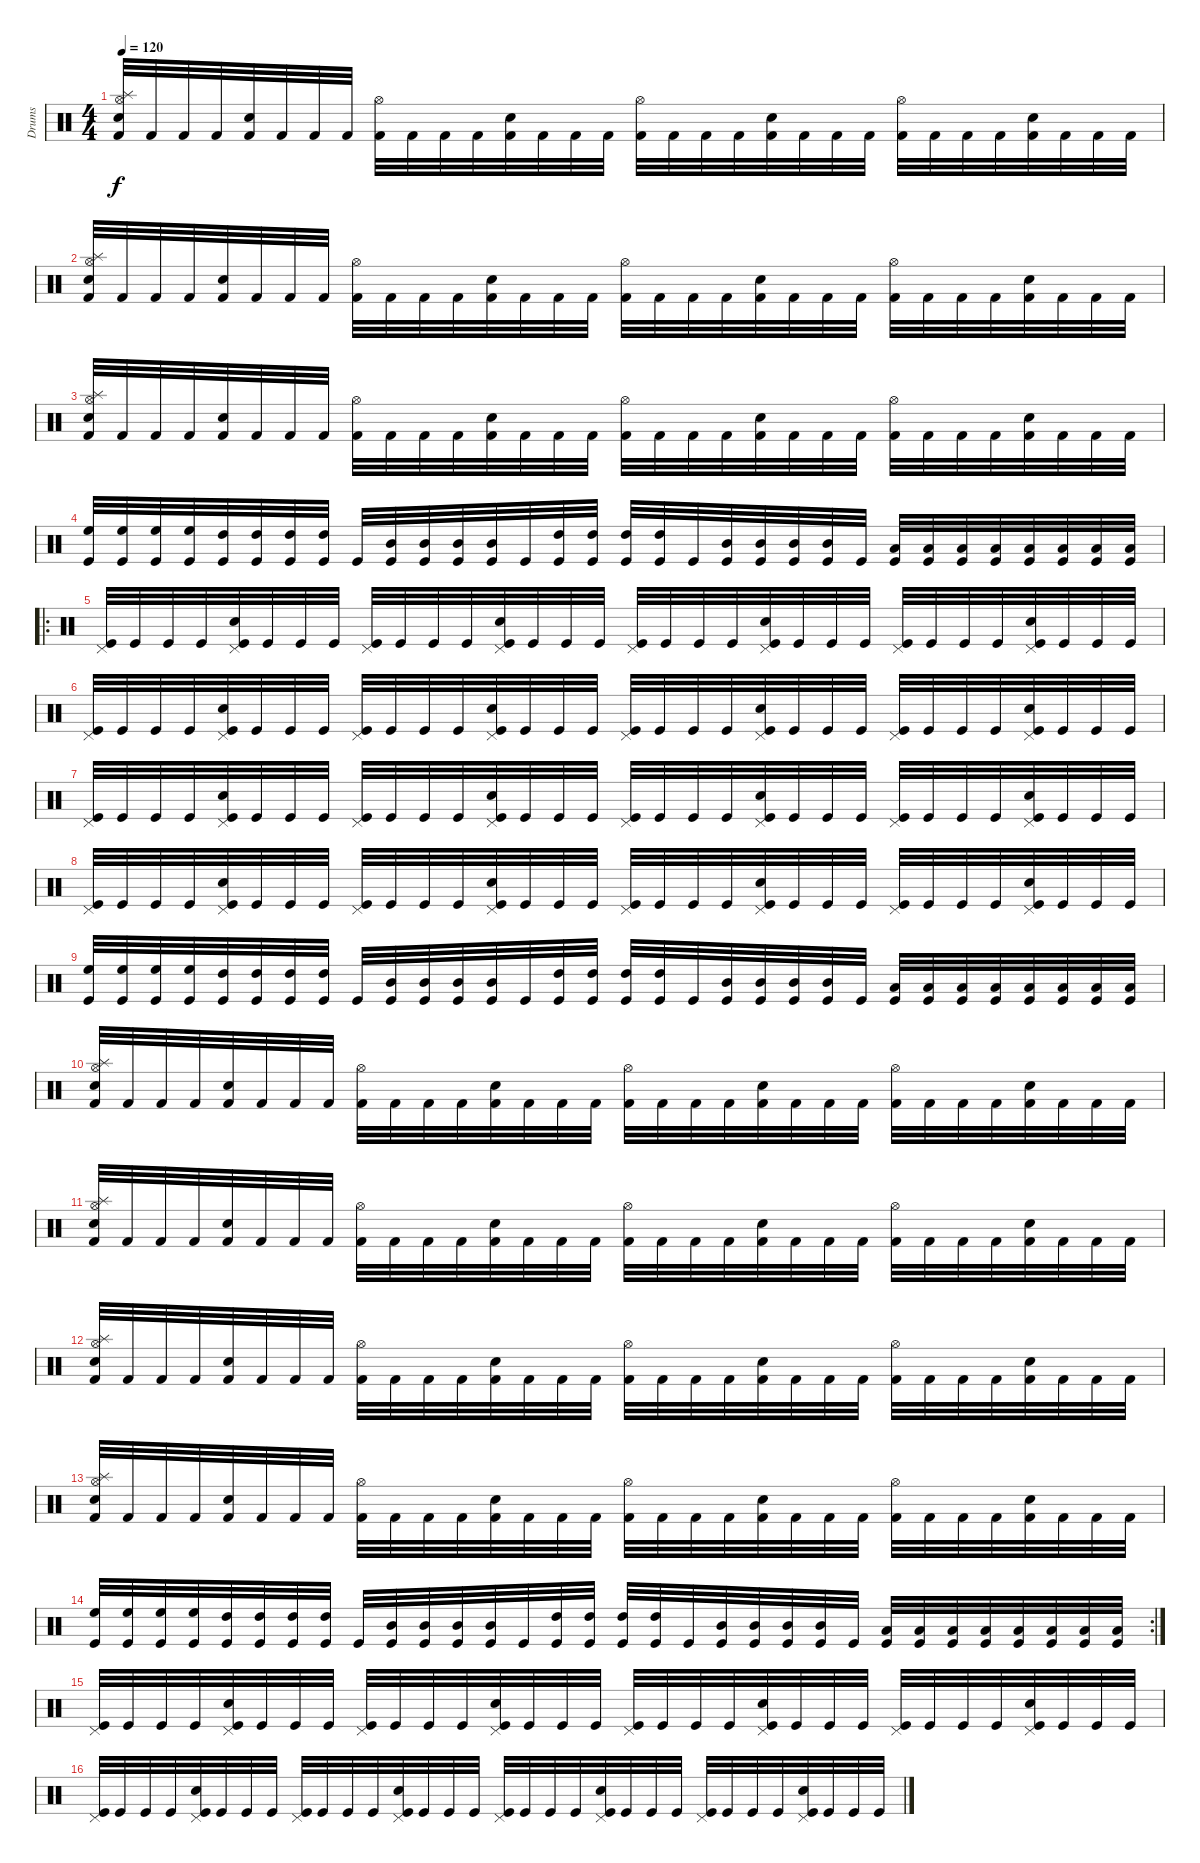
\track ("Drums" "Drums") {instrument percussion}
\staff {score}
\articulation defaults
\ts (4 4)
\tempo 120
\clef neutral
\ks c
("Snare (hit) 2" "Splash (hit)" "Hi-Hat (open)" "Kick (hit) 2").32{dy f} "Kick (hit) 2".32 "Kick (hit) 2".32 "Kick (hit) 2".32 ("Snare (hit) 2" "Kick (hit) 2").32 "Kick (hit) 2".32 "Kick (hit) 2".32 "Kick (hit) 2".32 ("Hi-Hat (open)" "Kick (hit) 2").32 "Kick (hit) 2".32 "Kick (hit) 2".32 "Kick (hit) 2".32 ("Snare (hit) 2" "Kick (hit) 2").32 "Kick (hit) 2".32 "Kick (hit) 2".32 "Kick (hit) 2".32 ("Hi-Hat (open)" "Kick (hit) 2").32 "Kick (hit) 2".32 "Kick (hit) 2".32 "Kick (hit) 2".32 ("Snare (hit) 2" "Kick (hit) 2").32 "Kick (hit) 2".32 "Kick (hit) 2".32 "Kick (hit) 2".32 ("Hi-Hat (open)" "Kick (hit) 2").32 "Kick (hit) 2".32 "Kick (hit) 2".32 "Kick (hit) 2".32 ("Snare (hit) 2" "Kick (hit) 2").32 "Kick (hit) 2".32 "Kick (hit) 2".32 "Kick (hit) 2".32 |
("Snare (hit) 2" "Splash (hit)" "Hi-Hat (open)" "Kick (hit) 2").32 "Kick (hit) 2".32 "Kick (hit) 2".32 "Kick (hit) 2".32 ("Snare (hit) 2" "Kick (hit) 2").32 "Kick (hit) 2".32 "Kick (hit) 2".32 "Kick (hit) 2".32 ("Hi-Hat (open)" "Kick (hit) 2").32 "Kick (hit) 2".32 "Kick (hit) 2".32 "Kick (hit) 2".32 ("Snare (hit) 2" "Kick (hit) 2").32 "Kick (hit) 2".32 "Kick (hit) 2".32 "Kick (hit) 2".32 ("Hi-Hat (open)" "Kick (hit) 2").32 "Kick (hit) 2".32 "Kick (hit) 2".32 "Kick (hit) 2".32 ("Snare (hit) 2" "Kick (hit) 2").32 "Kick (hit) 2".32 "Kick (hit) 2".32 "Kick (hit) 2".32 ("Hi-Hat (open)" "Kick (hit) 2").32 "Kick (hit) 2".32 "Kick (hit) 2".32 "Kick (hit) 2".32 ("Snare (hit) 2" "Kick (hit) 2").32 "Kick (hit) 2".32 "Kick (hit) 2".32 "Kick (hit) 2".32 |
("Snare (hit) 2" "Splash (hit)" "Hi-Hat (open)" "Kick (hit) 2").32 "Kick (hit) 2".32 "Kick (hit) 2".32 "Kick (hit) 2".32 ("Snare (hit) 2" "Kick (hit) 2").32 "Kick (hit) 2".32 "Kick (hit) 2".32 "Kick (hit) 2".32 ("Hi-Hat (open)" "Kick (hit) 2").32 "Kick (hit) 2".32 "Kick (hit) 2".32 "Kick (hit) 2".32 ("Snare (hit) 2" "Kick (hit) 2").32 "Kick (hit) 2".32 "Kick (hit) 2".32 "Kick (hit) 2".32 ("Hi-Hat (open)" "Kick (hit) 2").32 "Kick (hit) 2".32 "Kick (hit) 2".32 "Kick (hit) 2".32 ("Snare (hit) 2" "Kick (hit) 2").32 "Kick (hit) 2".32 "Kick (hit) 2".32 "Kick (hit) 2".32 ("Hi-Hat (open)" "Kick (hit) 2").32 "Kick (hit) 2".32 "Kick (hit) 2".32 "Kick (hit) 2".32 ("Snare (hit) 2" "Kick (hit) 2").32 "Kick (hit) 2".32 "Kick (hit) 2".32 "Kick (hit) 2".32 |
("Kick (hit)" "High Floor Tom (hit)").32 ("Kick (hit)" "High Floor Tom (hit)").32 ("Kick (hit)" "High Floor Tom (hit)").32 ("Kick (hit)" "High Floor Tom (hit)").32 ("Kick (hit)" "High Tom (hit)").32 ("Kick (hit)" "High Tom (hit)").32 ("Kick (hit)" "High Tom (hit)").32 ("Kick (hit)" "High Tom (hit)").32 "Kick (hit)".32 ("Kick (hit)" "Mid Tom (hit)").32 ("Kick (hit)" "Mid Tom (hit)").32 ("Kick (hit)" "Mid Tom (hit)").32 ("Kick (hit)" "Mid Tom (hit)").32 "Kick (hit)".32 ("Kick (hit)" "High Tom (hit)").32 ("Kick (hit)" "High Tom (hit)").32 ("Kick (hit)" "High Tom (hit)").32 ("Kick (hit)" "High Tom (hit)").32 "Kick (hit)".32 ("Kick (hit)" "Mid Tom (hit)").32 ("Kick (hit)" "Mid Tom (hit)").32 ("Kick (hit)" "Mid Tom (hit)").32 ("Kick (hit)" "Mid Tom (hit)").32 "Kick (hit)".32 ("Kick (hit)" "Low Tom (hit)").32 ("Kick (hit)" "Low Tom (hit)").32 ("Kick (hit)" "Low Tom (hit)").32 ("Kick (hit)" "Low Tom (hit)").32 ("Kick (hit)" "Low Tom (hit)").32 ("Kick (hit)" "Low Tom (hit)").32 ("Kick (hit)" "Low Tom (hit)").32 ("Kick (hit)" "Low Tom (hit)").32 |
\ro
("Kick (hit)" "Pedal Hi-Hat (hit)").32 "Kick (hit)".32 "Kick (hit)".32 "Kick (hit)".32 ("Kick (hit)" "Snare (hit) 2" "Pedal Hi-Hat (hit)").32 "Kick (hit)".32 "Kick (hit)".32 "Kick (hit)".32 ("Kick (hit)" "Pedal Hi-Hat (hit)").32 "Kick (hit)".32 "Kick (hit)".32 "Kick (hit)".32 ("Kick (hit)" "Snare (hit) 2" "Pedal Hi-Hat (hit)").32 "Kick (hit)".32 "Kick (hit)".32 "Kick (hit)".32 ("Kick (hit)" "Pedal Hi-Hat (hit)").32 "Kick (hit)".32 "Kick (hit)".32 "Kick (hit)".32 ("Kick (hit)" "Snare (hit) 2" "Pedal Hi-Hat (hit)").32 "Kick (hit)".32 "Kick (hit)".32 "Kick (hit)".32 ("Kick (hit)" "Pedal Hi-Hat (hit)").32 "Kick (hit)".32 "Kick (hit)".32 "Kick (hit)".32 ("Kick (hit)" "Snare (hit) 2" "Pedal Hi-Hat (hit)").32 "Kick (hit)".32 "Kick (hit)".32 "Kick (hit)".32 |
("Kick (hit)" "Pedal Hi-Hat (hit)").32 "Kick (hit)".32 "Kick (hit)".32 "Kick (hit)".32 ("Kick (hit)" "Snare (hit) 2" "Pedal Hi-Hat (hit)").32 "Kick (hit)".32 "Kick (hit)".32 "Kick (hit)".32 ("Kick (hit)" "Pedal Hi-Hat (hit)").32 "Kick (hit)".32 "Kick (hit)".32 "Kick (hit)".32 ("Kick (hit)" "Snare (hit) 2" "Pedal Hi-Hat (hit)").32 "Kick (hit)".32 "Kick (hit)".32 "Kick (hit)".32 ("Kick (hit)" "Pedal Hi-Hat (hit)").32 "Kick (hit)".32 "Kick (hit)".32 "Kick (hit)".32 ("Kick (hit)" "Snare (hit) 2" "Pedal Hi-Hat (hit)").32 "Kick (hit)".32 "Kick (hit)".32 "Kick (hit)".32 ("Kick (hit)" "Pedal Hi-Hat (hit)").32 "Kick (hit)".32 "Kick (hit)".32 "Kick (hit)".32 ("Kick (hit)" "Snare (hit) 2" "Pedal Hi-Hat (hit)").32 "Kick (hit)".32 "Kick (hit)".32 "Kick (hit)".32 |
("Kick (hit)" "Pedal Hi-Hat (hit)").32 "Kick (hit)".32 "Kick (hit)".32 "Kick (hit)".32 ("Kick (hit)" "Snare (hit) 2" "Pedal Hi-Hat (hit)").32 "Kick (hit)".32 "Kick (hit)".32 "Kick (hit)".32 ("Kick (hit)" "Pedal Hi-Hat (hit)").32 "Kick (hit)".32 "Kick (hit)".32 "Kick (hit)".32 ("Kick (hit)" "Snare (hit) 2" "Pedal Hi-Hat (hit)").32 "Kick (hit)".32 "Kick (hit)".32 "Kick (hit)".32 ("Kick (hit)" "Pedal Hi-Hat (hit)").32 "Kick (hit)".32 "Kick (hit)".32 "Kick (hit)".32 ("Kick (hit)" "Snare (hit) 2" "Pedal Hi-Hat (hit)").32 "Kick (hit)".32 "Kick (hit)".32 "Kick (hit)".32 ("Kick (hit)" "Pedal Hi-Hat (hit)").32 "Kick (hit)".32 "Kick (hit)".32 "Kick (hit)".32 ("Kick (hit)" "Snare (hit) 2" "Pedal Hi-Hat (hit)").32 "Kick (hit)".32 "Kick (hit)".32 "Kick (hit)".32 |
("Kick (hit)" "Pedal Hi-Hat (hit)").32 "Kick (hit)".32 "Kick (hit)".32 "Kick (hit)".32 ("Kick (hit)" "Snare (hit) 2" "Pedal Hi-Hat (hit)").32 "Kick (hit)".32 "Kick (hit)".32 "Kick (hit)".32 ("Kick (hit)" "Pedal Hi-Hat (hit)").32 "Kick (hit)".32 "Kick (hit)".32 "Kick (hit)".32 ("Kick (hit)" "Snare (hit) 2" "Pedal Hi-Hat (hit)").32 "Kick (hit)".32 "Kick (hit)".32 "Kick (hit)".32 ("Kick (hit)" "Pedal Hi-Hat (hit)").32 "Kick (hit)".32 "Kick (hit)".32 "Kick (hit)".32 ("Kick (hit)" "Snare (hit) 2" "Pedal Hi-Hat (hit)").32 "Kick (hit)".32 "Kick (hit)".32 "Kick (hit)".32 ("Kick (hit)" "Pedal Hi-Hat (hit)").32 "Kick (hit)".32 "Kick (hit)".32 "Kick (hit)".32 ("Kick (hit)" "Snare (hit) 2" "Pedal Hi-Hat (hit)").32 "Kick (hit)".32 "Kick (hit)".32 "Kick (hit)".32 |
("Kick (hit)" "High Floor Tom (hit)").32 ("Kick (hit)" "High Floor Tom (hit)").32 ("Kick (hit)" "High Floor Tom (hit)").32 ("Kick (hit)" "High Floor Tom (hit)").32 ("Kick (hit)" "High Tom (hit)").32 ("Kick (hit)" "High Tom (hit)").32 ("Kick (hit)" "High Tom (hit)").32 ("Kick (hit)" "High Tom (hit)").32 "Kick (hit)".32 ("Kick (hit)" "Mid Tom (hit)").32 ("Kick (hit)" "Mid Tom (hit)").32 ("Kick (hit)" "Mid Tom (hit)").32 ("Kick (hit)" "Mid Tom (hit)").32 "Kick (hit)".32 ("Kick (hit)" "High Tom (hit)").32 ("Kick (hit)" "High Tom (hit)").32 ("Kick (hit)" "High Tom (hit)").32 ("Kick (hit)" "High Tom (hit)").32 "Kick (hit)".32 ("Kick (hit)" "Mid Tom (hit)").32 ("Kick (hit)" "Mid Tom (hit)").32 ("Kick (hit)" "Mid Tom (hit)").32 ("Kick (hit)" "Mid Tom (hit)").32 "Kick (hit)".32 ("Kick (hit)" "Low Tom (hit)").32 ("Kick (hit)" "Low Tom (hit)").32 ("Kick (hit)" "Low Tom (hit)").32 ("Kick (hit)" "Low Tom (hit)").32 ("Kick (hit)" "Low Tom (hit)").32 ("Kick (hit)" "Low Tom (hit)").32 ("Kick (hit)" "Low Tom (hit)").32 ("Kick (hit)" "Low Tom (hit)").32 |
("Snare (hit) 2" "Splash (hit)" "Hi-Hat (open)" "Kick (hit) 2").32 "Kick (hit) 2".32 "Kick (hit) 2".32 "Kick (hit) 2".32 ("Snare (hit) 2" "Kick (hit) 2").32 "Kick (hit) 2".32 "Kick (hit) 2".32 "Kick (hit) 2".32 ("Hi-Hat (open)" "Kick (hit) 2").32 "Kick (hit) 2".32 "Kick (hit) 2".32 "Kick (hit) 2".32 ("Snare (hit) 2" "Kick (hit) 2").32 "Kick (hit) 2".32 "Kick (hit) 2".32 "Kick (hit) 2".32 ("Hi-Hat (open)" "Kick (hit) 2").32 "Kick (hit) 2".32 "Kick (hit) 2".32 "Kick (hit) 2".32 ("Snare (hit) 2" "Kick (hit) 2").32 "Kick (hit) 2".32 "Kick (hit) 2".32 "Kick (hit) 2".32 ("Hi-Hat (open)" "Kick (hit) 2").32 "Kick (hit) 2".32 "Kick (hit) 2".32 "Kick (hit) 2".32 ("Snare (hit) 2" "Kick (hit) 2").32 "Kick (hit) 2".32 "Kick (hit) 2".32 "Kick (hit) 2".32 |
("Snare (hit) 2" "Splash (hit)" "Hi-Hat (open)" "Kick (hit) 2").32 "Kick (hit) 2".32 "Kick (hit) 2".32 "Kick (hit) 2".32 ("Snare (hit) 2" "Kick (hit) 2").32 "Kick (hit) 2".32 "Kick (hit) 2".32 "Kick (hit) 2".32 ("Hi-Hat (open)" "Kick (hit) 2").32 "Kick (hit) 2".32 "Kick (hit) 2".32 "Kick (hit) 2".32 ("Snare (hit) 2" "Kick (hit) 2").32 "Kick (hit) 2".32 "Kick (hit) 2".32 "Kick (hit) 2".32 ("Hi-Hat (open)" "Kick (hit) 2").32 "Kick (hit) 2".32 "Kick (hit) 2".32 "Kick (hit) 2".32 ("Snare (hit) 2" "Kick (hit) 2").32 "Kick (hit) 2".32 "Kick (hit) 2".32 "Kick (hit) 2".32 ("Hi-Hat (open)" "Kick (hit) 2").32 "Kick (hit) 2".32 "Kick (hit) 2".32 "Kick (hit) 2".32 ("Snare (hit) 2" "Kick (hit) 2").32 "Kick (hit) 2".32 "Kick (hit) 2".32 "Kick (hit) 2".32 |
("Snare (hit) 2" "Splash (hit)" "Hi-Hat (open)" "Kick (hit) 2").32 "Kick (hit) 2".32 "Kick (hit) 2".32 "Kick (hit) 2".32 ("Snare (hit) 2" "Kick (hit) 2").32 "Kick (hit) 2".32 "Kick (hit) 2".32 "Kick (hit) 2".32 ("Hi-Hat (open)" "Kick (hit) 2").32 "Kick (hit) 2".32 "Kick (hit) 2".32 "Kick (hit) 2".32 ("Snare (hit) 2" "Kick (hit) 2").32 "Kick (hit) 2".32 "Kick (hit) 2".32 "Kick (hit) 2".32 ("Hi-Hat (open)" "Kick (hit) 2").32 "Kick (hit) 2".32 "Kick (hit) 2".32 "Kick (hit) 2".32 ("Snare (hit) 2" "Kick (hit) 2").32 "Kick (hit) 2".32 "Kick (hit) 2".32 "Kick (hit) 2".32 ("Hi-Hat (open)" "Kick (hit) 2").32 "Kick (hit) 2".32 "Kick (hit) 2".32 "Kick (hit) 2".32 ("Snare (hit) 2" "Kick (hit) 2").32 "Kick (hit) 2".32 "Kick (hit) 2".32 "Kick (hit) 2".32 |
("Snare (hit) 2" "Splash (hit)" "Hi-Hat (open)" "Kick (hit) 2").32 "Kick (hit) 2".32 "Kick (hit) 2".32 "Kick (hit) 2".32 ("Snare (hit) 2" "Kick (hit) 2").32 "Kick (hit) 2".32 "Kick (hit) 2".32 "Kick (hit) 2".32 ("Hi-Hat (open)" "Kick (hit) 2").32 "Kick (hit) 2".32 "Kick (hit) 2".32 "Kick (hit) 2".32 ("Snare (hit) 2" "Kick (hit) 2").32 "Kick (hit) 2".32 "Kick (hit) 2".32 "Kick (hit) 2".32 ("Hi-Hat (open)" "Kick (hit) 2").32 "Kick (hit) 2".32 "Kick (hit) 2".32 "Kick (hit) 2".32 ("Snare (hit) 2" "Kick (hit) 2").32 "Kick (hit) 2".32 "Kick (hit) 2".32 "Kick (hit) 2".32 ("Hi-Hat (open)" "Kick (hit) 2").32 "Kick (hit) 2".32 "Kick (hit) 2".32 "Kick (hit) 2".32 ("Snare (hit) 2" "Kick (hit) 2").32 "Kick (hit) 2".32 "Kick (hit) 2".32 "Kick (hit) 2".32 |
\rc 2
("Kick (hit)" "High Floor Tom (hit)").32 ("Kick (hit)" "High Floor Tom (hit)").32 ("Kick (hit)" "High Floor Tom (hit)").32 ("Kick (hit)" "High Floor Tom (hit)").32 ("Kick (hit)" "High Tom (hit)").32 ("Kick (hit)" "High Tom (hit)").32 ("Kick (hit)" "High Tom (hit)").32 ("Kick (hit)" "High Tom (hit)").32 "Kick (hit)".32 ("Kick (hit)" "Mid Tom (hit)").32 ("Kick (hit)" "Mid Tom (hit)").32 ("Kick (hit)" "Mid Tom (hit)").32 ("Kick (hit)" "Mid Tom (hit)").32 "Kick (hit)".32 ("Kick (hit)" "High Tom (hit)").32 ("Kick (hit)" "High Tom (hit)").32 ("Kick (hit)" "High Tom (hit)").32 ("Kick (hit)" "High Tom (hit)").32 "Kick (hit)".32 ("Kick (hit)" "Mid Tom (hit)").32 ("Kick (hit)" "Mid Tom (hit)").32 ("Kick (hit)" "Mid Tom (hit)").32 ("Kick (hit)" "Mid Tom (hit)").32 "Kick (hit)".32 ("Kick (hit)" "Low Tom (hit)").32 ("Kick (hit)" "Low Tom (hit)").32 ("Kick (hit)" "Low Tom (hit)").32 ("Kick (hit)" "Low Tom (hit)").32 ("Kick (hit)" "Low Tom (hit)").32 ("Kick (hit)" "Low Tom (hit)").32 ("Kick (hit)" "Low Tom (hit)").32 ("Kick (hit)" "Low Tom (hit)").32 |
("Kick (hit)" "Pedal Hi-Hat (hit)").32 "Kick (hit)".32 "Kick (hit)".32 "Kick (hit)".32 ("Kick (hit)" "Snare (hit) 2" "Pedal Hi-Hat (hit)").32 "Kick (hit)".32 "Kick (hit)".32 "Kick (hit)".32 ("Kick (hit)" "Pedal Hi-Hat (hit)").32 "Kick (hit)".32 "Kick (hit)".32 "Kick (hit)".32 ("Kick (hit)" "Snare (hit) 2" "Pedal Hi-Hat (hit)").32 "Kick (hit)".32 "Kick (hit)".32 "Kick (hit)".32 ("Kick (hit)" "Pedal Hi-Hat (hit)").32 "Kick (hit)".32 "Kick (hit)".32 "Kick (hit)".32 ("Kick (hit)" "Snare (hit) 2" "Pedal Hi-Hat (hit)").32 "Kick (hit)".32 "Kick (hit)".32 "Kick (hit)".32 ("Kick (hit)" "Pedal Hi-Hat (hit)").32 "Kick (hit)".32 "Kick (hit)".32 "Kick (hit)".32 ("Kick (hit)" "Snare (hit) 2" "Pedal Hi-Hat (hit)").32 "Kick (hit)".32 "Kick (hit)".32 "Kick (hit)".32 |
("Kick (hit)" "Pedal Hi-Hat (hit)").32 "Kick (hit)".32 "Kick (hit)".32 "Kick (hit)".32 ("Kick (hit)" "Snare (hit) 2" "Pedal Hi-Hat (hit)").32 "Kick (hit)".32 "Kick (hit)".32 "Kick (hit)".32 ("Kick (hit)" "Pedal Hi-Hat (hit)").32 "Kick (hit)".32 "Kick (hit)".32 "Kick (hit)".32 ("Kick (hit)" "Snare (hit) 2" "Pedal Hi-Hat (hit)").32 "Kick (hit)".32 "Kick (hit)".32 "Kick (hit)".32 ("Kick (hit)" "Pedal Hi-Hat (hit)").32 "Kick (hit)".32 "Kick (hit)".32 "Kick (hit)".32 ("Kick (hit)" "Snare (hit) 2" "Pedal Hi-Hat (hit)").32 "Kick (hit)".32 "Kick (hit)".32 "Kick (hit)".32 ("Kick (hit)" "Pedal Hi-Hat (hit)").32 "Kick (hit)".32 "Kick (hit)".32 "Kick (hit)".32 ("Kick (hit)" "Snare (hit) 2" "Pedal Hi-Hat (hit)").32 "Kick (hit)".32 "Kick (hit)".32 "Kick (hit)".32
